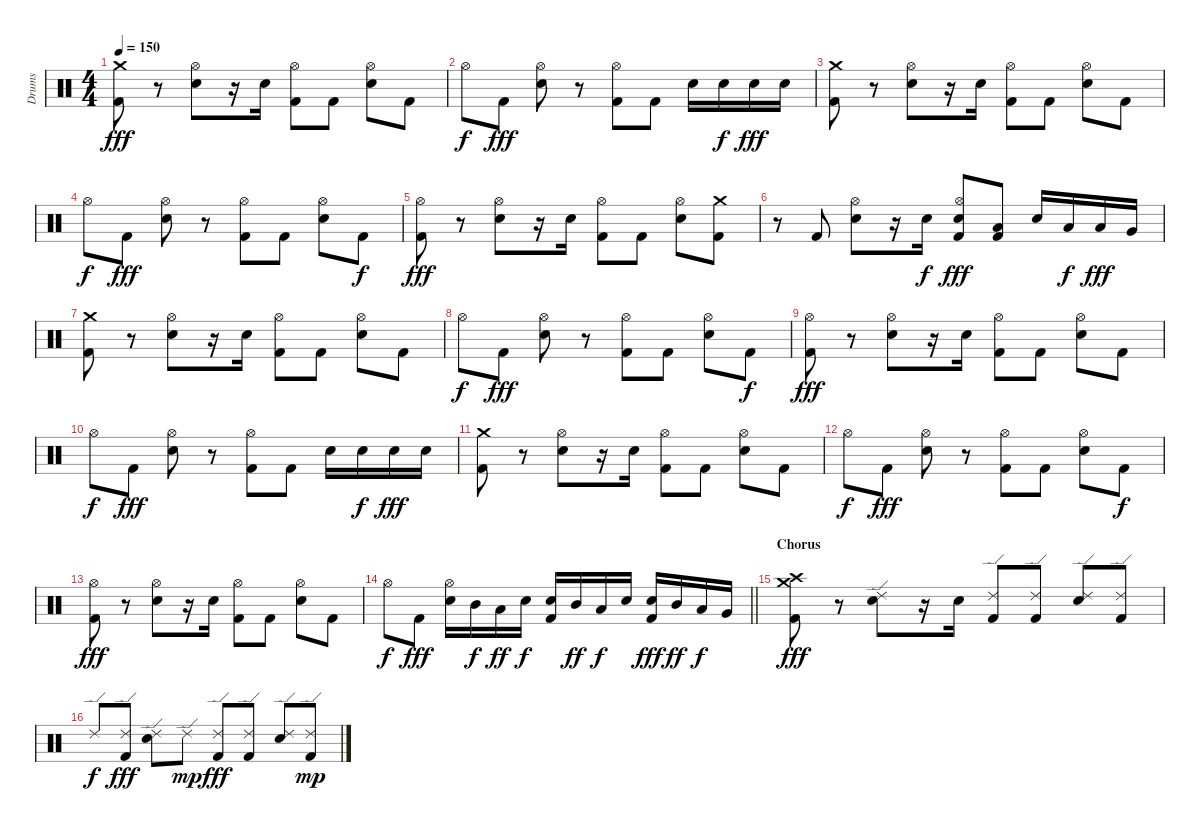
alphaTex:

\track ("Drums" "Drums") {instrument percussion}
\staff {score}
\articulation defaults
\ts (4 4)
\tempo 150
\clef neutral
\ks c
("Crash medium (hit)" "Kick (hit) 2").8{dy fff} r.8 ("Hi-Hat (open)" "Electric Snare (hit)").8 r.16 "Electric Snare (hit)".16 ("Hi-Hat (open)" "Kick (hit) 2").8 "Kick (hit) 2".8 ("Hi-Hat (open)" "Electric Snare (hit)").8 "Kick (hit) 2".8 |
"Hi-Hat (open)".8{dy f} "Kick (hit) 2".8{dy fff} ("Hi-Hat (open)" "Electric Snare (hit)").8 r.8 ("Hi-Hat (open)" "Kick (hit) 2").8 "Kick (hit) 2".8 "Electric Snare (hit)".16 "Electric Snare (hit)".16{dy f} "Electric Snare (hit)".16{dy fff} "Electric Snare (hit)".16 |
("Crash medium (hit)" "Kick (hit) 2").8 r.8 ("Hi-Hat (open)" "Electric Snare (hit)").8 r.16 "Electric Snare (hit)".16 ("Hi-Hat (open)" "Kick (hit) 2").8 "Kick (hit) 2".8 ("Hi-Hat (open)" "Electric Snare (hit)").8 "Kick (hit) 2".8 |
"Hi-Hat (open)".8{dy f} "Kick (hit) 2".8{dy fff} ("Hi-Hat (open)" "Electric Snare (hit)").8 r.8 ("Hi-Hat (open)" "Kick (hit) 2").8 "Kick (hit) 2".8 ("Hi-Hat (open)" "Electric Snare (hit)").8 "Kick (hit) 2".8{dy f} |
("Hi-Hat (open)" "Kick (hit) 2").8{dy fff} r.8 ("Hi-Hat (open)" "Electric Snare (hit)").8 r.16 "Electric Snare (hit)".16 ("Hi-Hat (open)" "Kick (hit) 2").8 "Kick (hit) 2".8 ("Hi-Hat (open)" "Electric Snare (hit)").8 ("Crash medium (hit)" "Kick (hit) 2").8 |
r.8 "Kick (hit) 2".8 ("Hi-Hat (open)" "Electric Snare (hit)").8 r.16 "Electric Snare (hit)".16{dy f} ("Hi-Hat (open)" "Electric Snare (hit)" "Kick (hit) 2").8{dy fff} ("Low Tom (hit)" "Kick (hit) 2").8 "Electric Snare (hit)".16 "Low Tom (hit)".16{dy f} "Low Tom (hit)".16{dy fff} "Very Low Tom (hit)".16 |
("Crash medium (hit)" "Kick (hit) 2").8 r.8 ("Hi-Hat (open)" "Electric Snare (hit)").8 r.16 "Electric Snare (hit)".16 ("Hi-Hat (open)" "Kick (hit) 2").8 "Kick (hit) 2".8 ("Hi-Hat (open)" "Electric Snare (hit)").8 "Kick (hit) 2".8 |
"Hi-Hat (open)".8{dy f} "Kick (hit) 2".8{dy fff} ("Hi-Hat (open)" "Electric Snare (hit)").8 r.8 ("Hi-Hat (open)" "Kick (hit) 2").8 "Kick (hit) 2".8 ("Hi-Hat (open)" "Electric Snare (hit)").8 "Kick (hit) 2".8{dy f} |
("Hi-Hat (open)" "Kick (hit) 2").8{dy fff} r.8 ("Hi-Hat (open)" "Electric Snare (hit)").8 r.16 "Electric Snare (hit)".16 ("Hi-Hat (open)" "Kick (hit) 2").8 "Kick (hit) 2".8 ("Hi-Hat (open)" "Electric Snare (hit)").8 "Kick (hit) 2".8 |
"Hi-Hat (open)".8{dy f} "Kick (hit) 2".8{dy fff} ("Hi-Hat (open)" "Electric Snare (hit)").8 r.8 ("Hi-Hat (open)" "Kick (hit) 2").8 "Kick (hit) 2".8 "Electric Snare (hit)".16 "Electric Snare (hit)".16{dy f} "Electric Snare (hit)".16{dy fff} "Electric Snare (hit)".16 |
("Crash medium (hit)" "Kick (hit) 2").8 r.8 ("Hi-Hat (open)" "Electric Snare (hit)").8 r.16 "Electric Snare (hit)".16 ("Hi-Hat (open)" "Kick (hit) 2").8 "Kick (hit) 2".8 ("Hi-Hat (open)" "Electric Snare (hit)").8 "Kick (hit) 2".8 |
"Hi-Hat (open)".8{dy f} "Kick (hit) 2".8{dy fff} ("Hi-Hat (open)" "Electric Snare (hit)").8 r.8 ("Hi-Hat (open)" "Kick (hit) 2").8 "Kick (hit) 2".8 ("Hi-Hat (open)" "Electric Snare (hit)").8 "Kick (hit) 2".8{dy f} |
("Hi-Hat (open)" "Kick (hit) 2").8{dy fff} r.8 ("Hi-Hat (open)" "Electric Snare (hit)").8 r.16 "Electric Snare (hit)".16 ("Hi-Hat (open)" "Kick (hit) 2").8 "Kick (hit) 2".8 ("Hi-Hat (open)" "Electric Snare (hit)").8 "Kick (hit) 2".8 |
\barLineRight lightlight "Hi-Hat (open)".8{dy f} "Kick (hit) 2".8{dy fff}
("Hi-Hat (open)" "Electric Snare (hit)").16 "Mid Tom (hit)".16{dy f} "Low Tom (hit)".16{dy ff} "Electric Snare (hit)".16{dy f} ("Electric Snare (hit)" "Kick (hit) 2").16 "Mid Tom (hit)".16{dy ff} "Low Tom (hit)".16{dy f} "Electric Snare (hit)".16 ("Electric Snare (hit)" "Kick (hit) 2").16{dy fff} "Mid Tom (hit)".16{dy ff} "Low Tom (hit)".16{dy f} "Very Low Tom (hit)".16 |
\section ("" "Chorus")
("Crash high (hit)" "Crash medium (hit)" "Kick (hit) 2").8{dy fff} r.8 ("Ride (edge) 2" "Electric Snare (hit)").8 r.16 "Electric Snare (hit)".16 ("Ride (edge) 2" "Kick (hit) 2").8 ("Ride (edge) 2" "Kick (hit) 2").8 ("Ride (edge) 2" "Electric Snare (hit)").8 ("Ride (edge) 2" "Kick (hit) 2").8 |
"Ride (edge) 2".8{dy f} ("Ride (edge) 2" "Kick (hit) 2").8{dy fff} ("Ride (edge) 2" "Electric Snare (hit)").8 "Ride (edge) 2".8{dy mp} ("Ride (edge) 2" "Kick (hit) 2").8{dy fff} ("Ride (edge) 2" "Kick (hit) 2").8 ("Ride (edge) 2" "Electric Snare (hit)").8 ("Ride (edge) 2" "Kick (hit) 2").8{dy mp}
